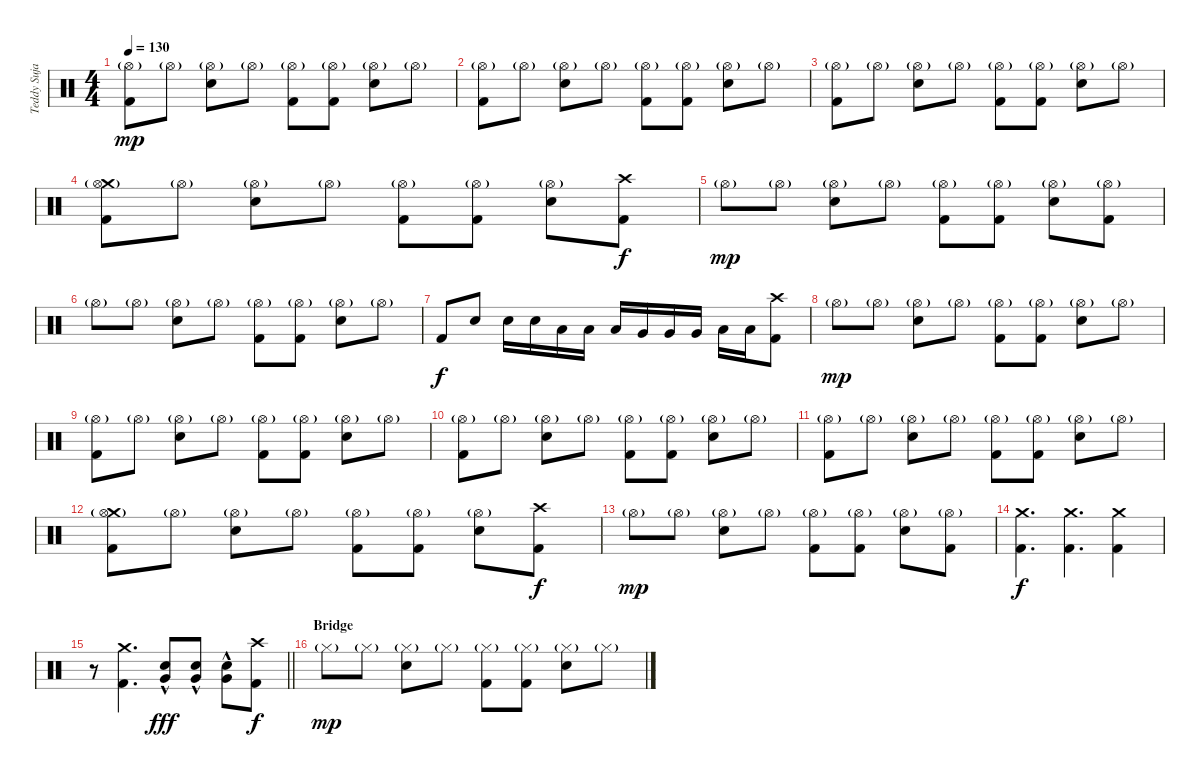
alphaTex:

\track ("Teddy Sujaya" "Teddy Suja") {instrument percussion}
\staff {score}
\articulation defaults
\ts (4 4)
\tempo 130
\clef neutral
\ks c
("Hi-Hat (open)"{g} "Kick (hit) 2").8{dy mp} "Hi-Hat (open)"{g}.8 ("Hi-Hat (open)"{g} "Electric Snare (hit)").8 "Hi-Hat (open)"{g}.8 ("Hi-Hat (open)"{g} "Kick (hit) 2").8 ("Hi-Hat (open)"{g} "Kick (hit) 2").8 ("Hi-Hat (open)"{g} "Electric Snare (hit)").8 "Hi-Hat (open)"{g}.8 |
("Hi-Hat (open)"{g} "Kick (hit) 2").8 "Hi-Hat (open)"{g}.8 ("Hi-Hat (open)"{g} "Electric Snare (hit)").8 "Hi-Hat (open)"{g}.8 ("Hi-Hat (open)"{g} "Kick (hit) 2").8 ("Hi-Hat (open)"{g} "Kick (hit) 2").8 ("Hi-Hat (open)"{g} "Electric Snare (hit)").8 "Hi-Hat (open)"{g}.8 |
("Hi-Hat (open)"{g} "Kick (hit) 2").8 "Hi-Hat (open)"{g}.8 ("Hi-Hat (open)"{g} "Electric Snare (hit)").8 "Hi-Hat (open)"{g}.8 ("Hi-Hat (open)"{g} "Kick (hit) 2").8 ("Hi-Hat (open)"{g} "Kick (hit) 2").8 ("Hi-Hat (open)"{g} "Electric Snare (hit)").8 "Hi-Hat (open)"{g}.8 |
("Crash medium (hit)" "Hi-Hat (open)"{g} "Kick (hit) 2").8 "Hi-Hat (open)"{g}.8 ("Hi-Hat (open)"{g} "Electric Snare (hit)").8 "Hi-Hat (open)"{g}.8 ("Hi-Hat (open)"{g} "Kick (hit) 2").8 ("Hi-Hat (open)"{g} "Kick (hit) 2").8 ("Hi-Hat (open)"{g} "Electric Snare (hit)").8 ("Crash high (hit)" "Kick (hit) 2").8{dy f} |
"Hi-Hat (open)"{g}.8{dy mp} "Hi-Hat (open)"{g}.8 ("Hi-Hat (open)"{g} "Electric Snare (hit)").8 "Hi-Hat (open)"{g}.8 ("Hi-Hat (open)"{g} "Kick (hit) 2").8 ("Hi-Hat (open)"{g} "Kick (hit) 2").8 ("Hi-Hat (open)"{g} "Electric Snare (hit)").8 ("Hi-Hat (open)"{g} "Kick (hit) 2").8 |
"Hi-Hat (open)"{g}.8 "Hi-Hat (open)"{g}.8 ("Hi-Hat (open)"{g} "Electric Snare (hit)").8 "Hi-Hat (open)"{g}.8 ("Hi-Hat (open)"{g} "Kick (hit) 2").8 ("Hi-Hat (open)"{g} "Kick (hit) 2").8 ("Hi-Hat (open)"{g} "Electric Snare (hit)").8 "Hi-Hat (open)"{g}.8 |
"Kick (hit) 2".8{dy f} "Electric Snare (hit)".8 "Electric Snare (hit)".16 "Electric Snare (hit)".16 "Low Tom (hit)".16 "Low Tom (hit)".16 "Low Tom (hit)".16 "Very Low Tom (hit)".16 "Very Low Tom (hit)".16 "Very Low Tom (hit)".16 "Low Floor Tom (hit)".16 "Low Floor Tom (hit)".16 ("Crash high (hit)" "Kick (hit) 2").8 |
"Hi-Hat (open)"{g}.8{dy mp} "Hi-Hat (open)"{g}.8 ("Hi-Hat (open)"{g} "Electric Snare (hit)").8 "Hi-Hat (open)"{g}.8 ("Hi-Hat (open)"{g} "Kick (hit) 2").8 ("Hi-Hat (open)"{g} "Kick (hit) 2").8 ("Hi-Hat (open)"{g} "Electric Snare (hit)").8 "Hi-Hat (open)"{g}.8 |
("Hi-Hat (open)"{g} "Kick (hit) 2").8 "Hi-Hat (open)"{g}.8 ("Hi-Hat (open)"{g} "Electric Snare (hit)").8 "Hi-Hat (open)"{g}.8 ("Hi-Hat (open)"{g} "Kick (hit) 2").8 ("Hi-Hat (open)"{g} "Kick (hit) 2").8 ("Hi-Hat (open)"{g} "Electric Snare (hit)").8 "Hi-Hat (open)"{g}.8 |
("Hi-Hat (open)"{g} "Kick (hit) 2").8 "Hi-Hat (open)"{g}.8 ("Hi-Hat (open)"{g} "Electric Snare (hit)").8 "Hi-Hat (open)"{g}.8 ("Hi-Hat (open)"{g} "Kick (hit) 2").8 ("Hi-Hat (open)"{g} "Kick (hit) 2").8 ("Hi-Hat (open)"{g} "Electric Snare (hit)").8 "Hi-Hat (open)"{g}.8 |
("Hi-Hat (open)"{g} "Kick (hit) 2").8 "Hi-Hat (open)"{g}.8 ("Hi-Hat (open)"{g} "Electric Snare (hit)").8 "Hi-Hat (open)"{g}.8 ("Hi-Hat (open)"{g} "Kick (hit) 2").8 ("Hi-Hat (open)"{g} "Kick (hit) 2").8 ("Hi-Hat (open)"{g} "Electric Snare (hit)").8 "Hi-Hat (open)"{g}.8 |
("Crash medium (hit)" "Hi-Hat (open)"{g} "Kick (hit) 2").8 "Hi-Hat (open)"{g}.8 ("Hi-Hat (open)"{g} "Electric Snare (hit)").8 "Hi-Hat (open)"{g}.8 ("Hi-Hat (open)"{g} "Kick (hit) 2").8 ("Hi-Hat (open)"{g} "Kick (hit) 2").8 ("Hi-Hat (open)"{g} "Electric Snare (hit)").8 ("Crash high (hit)" "Kick (hit) 2").8{dy f} |
"Hi-Hat (open)"{g}.8{dy mp} "Hi-Hat (open)"{g}.8 ("Hi-Hat (open)"{g} "Electric Snare (hit)").8 "Hi-Hat (open)"{g}.8 ("Hi-Hat (open)"{g} "Kick (hit) 2").8 ("Hi-Hat (open)"{g} "Kick (hit) 2").8 ("Hi-Hat (open)"{g} "Electric Snare (hit)").8 ("Hi-Hat (open)"{g} "Kick (hit) 2").8 |
("Crash medium (hit)" "Kick (hit) 2").4{d dy f} ("Crash medium (hit)" "Kick (hit) 2").4{d} ("Crash medium (hit)" "Kick (hit) 2").4 |
\barLineRight lightlight
r.8 ("Crash medium (hit)" "Kick (hit) 2").4{d} ("Very Low Tom (hit)"{hac} "Electric Snare (hit)"{hac}).8{dy fff} ("Very Low Tom (hit)"{hac} "Electric Snare (hit)"{hac}).8 ("Very Low Tom (hit)"{hac} "Electric Snare (hit)"{hac}).8 ("Crash high (hit)" "Kick (hit) 2").8{dy f} |
\section ("" "Bridge")
"Hi-Hat (closed)"{g}.8{dy mp} "Hi-Hat (closed)"{g}.8 ("Hi-Hat (closed)"{g} "Electric Snare (hit)").8 "Hi-Hat (closed)"{g}.8 ("Hi-Hat (closed)"{g} "Kick (hit) 2").8 ("Hi-Hat (closed)"{g} "Kick (hit) 2").8 ("Hi-Hat (closed)"{g} "Electric Snare (hit)").8 "Hi-Hat (closed)"{g}.8
